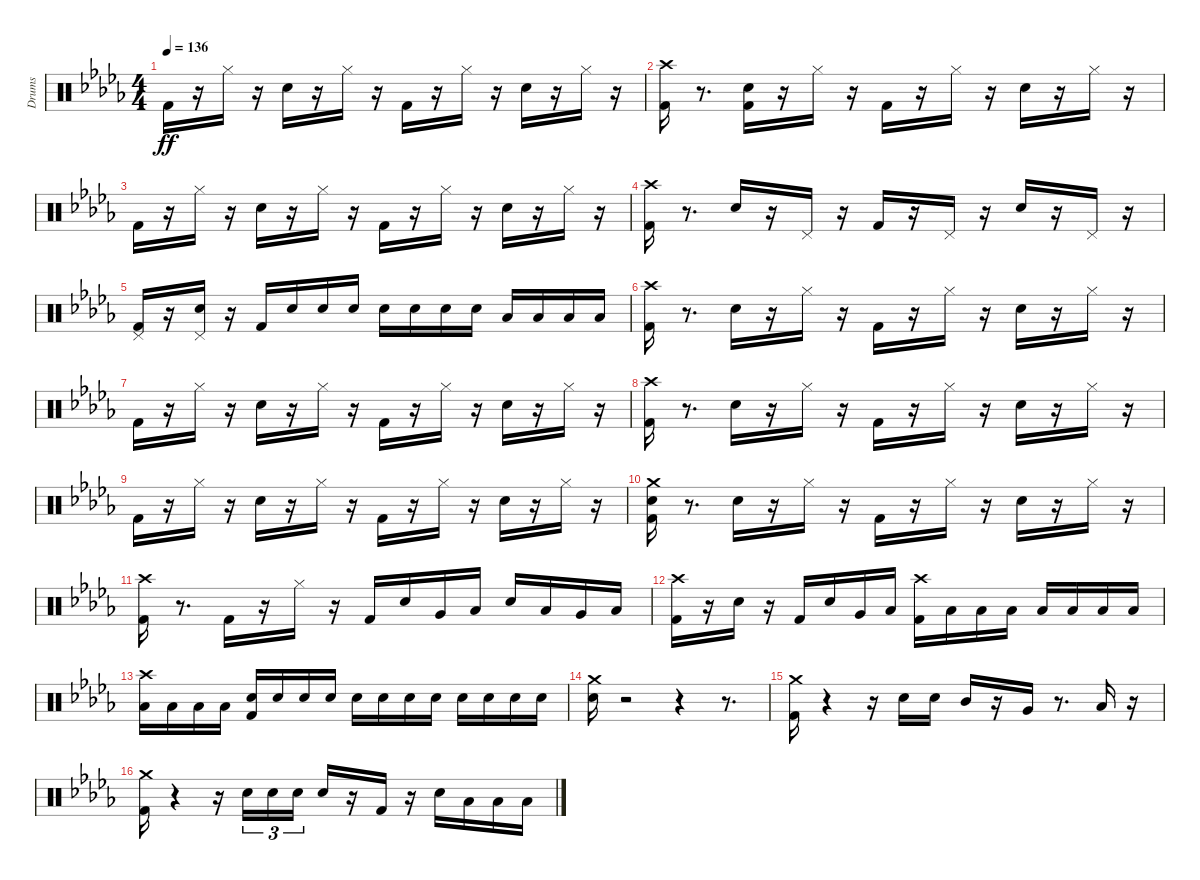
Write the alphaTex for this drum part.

\track ("Drums" "Drums") {instrument percussion}
\staff {score}
\articulation defaults
\ts (4 4)
\tempo 136
\clef neutral
\ks db "Kick (hit) 2".16{dy ff}
r.16 "Hi-Hat (closed)".16 r.16 "Electric Snare (hit)".16 r.16 "Hi-Hat (closed)".16 r.16 "Kick (hit) 2".16 r.16 "Hi-Hat (closed)".16 r.16 "Electric Snare (hit)".16 r.16 "Hi-Hat (closed)".16 r.16 |
("Kick (hit) 2" "Crash high (hit)").16 r.8{d} ("Kick (hit) 2" "Electric Snare (hit)").16 r.16 "Hi-Hat (closed)".16 r.16 "Kick (hit) 2".16 r.16 "Hi-Hat (closed)".16 r.16 "Electric Snare (hit)".16 r.16 "Hi-Hat (closed)".16 r.16 |
"Kick (hit) 2".16 r.16 "Hi-Hat (closed)".16 r.16 "Electric Snare (hit)".16 r.16 "Hi-Hat (closed)".16 r.16 "Kick (hit) 2".16 r.16 "Hi-Hat (closed)".16 r.16 "Electric Snare (hit)".16 r.16 "Hi-Hat (closed)".16 r.16 |
("Kick (hit) 2" "Crash high (hit)").16 r.8{d} "Electric Snare (hit)".16 r.16 "Pedal Hi-Hat (hit)".16 r.16 "Kick (hit) 2".16 r.16 "Pedal Hi-Hat (hit)".16 r.16 "Electric Snare (hit)".16 r.16 "Pedal Hi-Hat (hit)".16 r.16 |
("Kick (hit) 2" "Pedal Hi-Hat (hit)").16 r.16 ("Electric Snare (hit)" "Pedal Hi-Hat (hit)").16 r.16 "Kick (hit) 2".16 "Electric Snare (hit)".16 "Electric Snare (hit)".16 "Electric Snare (hit)".16 "Electric Snare (hit)".16 "Electric Snare (hit)".16 "Electric Snare (hit)".16 "Electric Snare (hit)".16 "Low Floor Tom (hit)".16 "Low Floor Tom (hit)".16 "Low Floor Tom (hit)".16 "Low Floor Tom (hit)".16 |
("Kick (hit) 2" "Crash high (hit)").16 r.8{d} "Electric Snare (hit)".16 r.16 "Hi-Hat (closed)".16 r.16 "Kick (hit) 2".16 r.16 "Hi-Hat (closed)".16 r.16 "Electric Snare (hit)".16 r.16 "Hi-Hat (closed)".16 r.16 |
"Kick (hit) 2".16 r.16 "Hi-Hat (closed)".16 r.16 "Electric Snare (hit)".16 r.16 "Hi-Hat (closed)".16 r.16 "Kick (hit) 2".16 r.16 "Hi-Hat (closed)".16 r.16 "Electric Snare (hit)".16 r.16 "Hi-Hat (closed)".16 r.16 |
("Kick (hit) 2" "Crash high (hit)").16 r.8{d} "Electric Snare (hit)".16 r.16 "Hi-Hat (closed)".16 r.16 "Kick (hit) 2".16 r.16 "Hi-Hat (closed)".16 r.16 "Electric Snare (hit)".16 r.16 "Hi-Hat (closed)".16 r.16 |
"Kick (hit) 2".16 r.16 "Hi-Hat (closed)".16 r.16 "Electric Snare (hit)".16 r.16 "Hi-Hat (closed)".16 r.16 "Kick (hit) 2".16 r.16 "Hi-Hat (closed)".16 r.16 "Electric Snare (hit)".16 r.16 "Hi-Hat (closed)".16 r.16 |
("Kick (hit) 2" "Electric Snare (hit)" "Crash medium (hit)").16 r.8{d} "Electric Snare (hit)".16 r.16 "Hi-Hat (closed)".16 r.16 "Kick (hit) 2".16 r.16 "Hi-Hat (closed)".16 r.16 "Electric Snare (hit)".16 r.16 "Hi-Hat (closed)".16 r.16 |
("Kick (hit) 2" "Crash high (hit)").16 r.8{d} "Kick (hit) 2".16 r.16 "Hi-Hat (closed)".16 r.16 "Kick (hit) 2".16 "Electric Snare (hit)".16 "Very Low Tom (hit)".16 "Low Floor Tom (hit)".16 "Electric Snare (hit)".16 "Low Tom (hit)".16 "Very Low Tom (hit)".16 "Low Floor Tom (hit)".16 |
("Kick (hit) 2" "Crash high (hit)").16 r.16 "Electric Snare (hit)".16 r.16 "Kick (hit) 2".16 "Electric Snare (hit)".16 "Very Low Tom (hit)".16 "Low Floor Tom (hit)".16 ("Kick (hit) 2" "Crash high (hit)").16 "Low Floor Tom (hit)".16 "Low Floor Tom (hit)".16 "Low Floor Tom (hit)".16 "Low Floor Tom (hit)".16 "Low Floor Tom (hit)".16 "Low Floor Tom (hit)".16 "Low Floor Tom (hit)".16 |
("Low Floor Tom (hit)" "Crash high (hit)").16 "Low Floor Tom (hit)".16 "Low Floor Tom (hit)".16 "Low Floor Tom (hit)".16 ("Kick (hit) 2" "Electric Snare (hit)").16 "Electric Snare (hit)".16 "Electric Snare (hit)".16 "Electric Snare (hit)".16 "Electric Snare (hit)".16 "Electric Snare (hit)".16 "Electric Snare (hit)".16 "Electric Snare (hit)".16 "Electric Snare (hit)".16 "Electric Snare (hit)".16 "Electric Snare (hit)".16 "Electric Snare (hit)".16 |
("Electric Snare (hit)" "Crash medium (hit)").16 r.2 r.4 r.8{d} |
("Kick (hit) 2" "Crash medium (hit)").16 r.4 r.16 "Electric Snare (hit)".16 "Electric Snare (hit)".16 "Mid Tom (hit)".16 r.16 "Very Low Tom (hit)".16 r.8{d} "Low Floor Tom (hit)".16 r.16 |
("Kick (hit) 2" "Crash medium (hit)").16 r.4 r.16 "Electric Snare (hit)".16{tu (3 2)} "Electric Snare (hit)".16{tu (3 2)} "Electric Snare (hit)".16{tu (3 2)} "Electric Snare (hit)".16 r.16 "Kick (hit) 2".16 r.16 "Electric Snare (hit)".16 "Low Floor Tom (hit)".16 "Low Floor Tom (hit)".16 "Low Floor Tom (hit)".16
